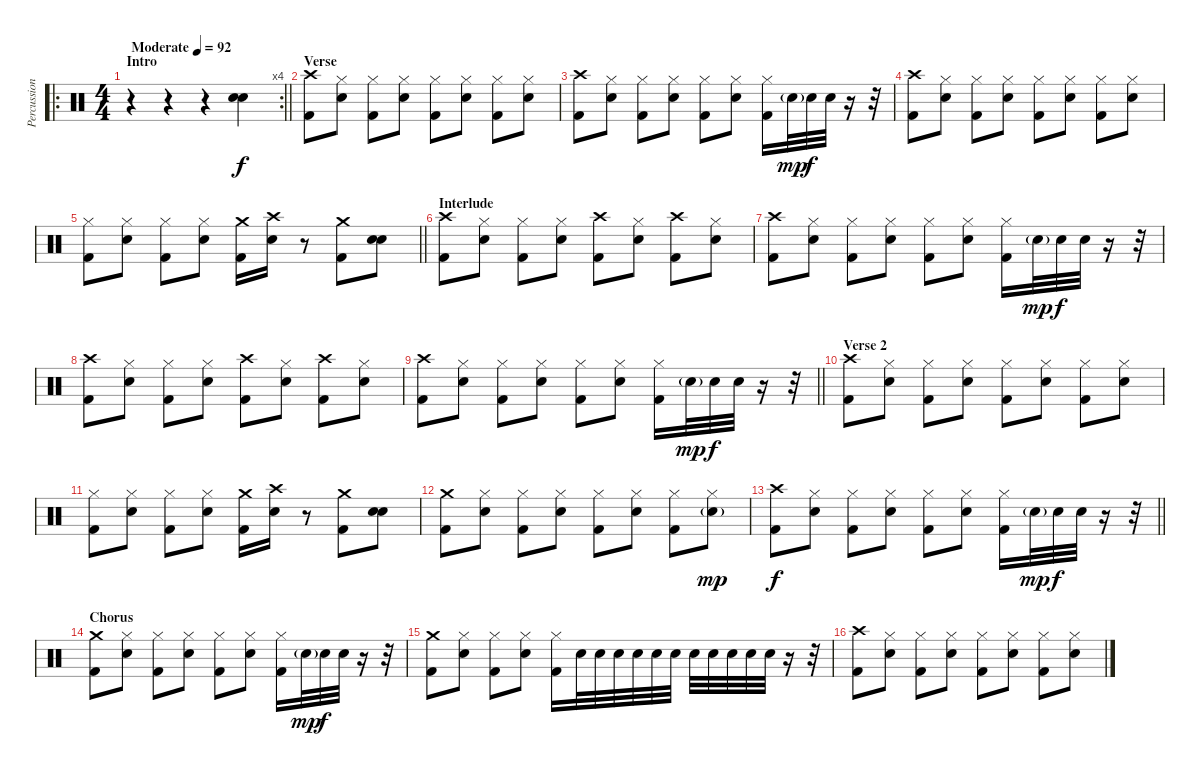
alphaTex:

\track ("Percussion" "Percussion") {instrument percussion}
\staff {score}
\articulation defaults
\ro
\rc 4
\ts (4 4)
\section ("" "Intro")
\tempo (92 "Moderate")
\clef neutral
\barLineRight lightlight
\ks c
r.4{dy f} r.4 r.4 ("Snare (hit) 2" "Snare (hit) 2").4{bd 240} |
\section ("" "Verse")
("Crash high (hit)" "Kick (hit) 2").8 ("Hi-Hat (closed)" "Snare (hit) 2").8 ("Hi-Hat (closed)" "Kick (hit) 2").8 ("Hi-Hat (closed)" "Snare (hit) 2").8 ("Hi-Hat (closed)" "Kick (hit) 2").8 ("Hi-Hat (closed)" "Snare (hit) 2").8 ("Hi-Hat (closed)" "Kick (hit) 2").8 ("Hi-Hat (closed)" "Snare (hit) 2").8 |
("Crash high (hit)" "Kick (hit) 2").8 ("Hi-Hat (closed)" "Snare (hit) 2").8 ("Hi-Hat (closed)" "Kick (hit) 2").8 ("Hi-Hat (closed)" "Snare (hit) 2").8 ("Hi-Hat (closed)" "Kick (hit) 2").8 ("Hi-Hat (closed)" "Snare (hit) 2").8 ("Hi-Hat (closed)" "Kick (hit) 2").16 "Snare (hit) 2"{g}.32{dy mp} "Snare (hit) 2".32{dy f} "Snare (hit) 2".32 r.16 r.32 |
("Crash high (hit)" "Kick (hit) 2").8 ("Hi-Hat (closed)" "Snare (hit) 2").8 ("Hi-Hat (closed)" "Kick (hit) 2").8 ("Hi-Hat (closed)" "Snare (hit) 2").8 ("Hi-Hat (closed)" "Kick (hit) 2").8 ("Hi-Hat (closed)" "Snare (hit) 2").8 ("Hi-Hat (closed)" "Kick (hit) 2").8 ("Hi-Hat (closed)" "Snare (hit) 2").8 |
\barLineRight lightlight
("Hi-Hat (closed)" "Kick (hit) 2").8 ("Hi-Hat (closed)" "Snare (hit) 2").8 ("Hi-Hat (closed)" "Kick (hit) 2").8 ("Hi-Hat (closed)" "Snare (hit) 2").8 ("Crash medium (hit)" "Kick (hit) 2").16 ("Crash high (hit)" "Snare (hit) 2").16 r.8 ("Crash medium (hit)" "Kick (hit) 2").8 ("Snare (hit) 2" "Snare (hit) 2").8{bd 240} |
\section ("" "Interlude")
("Crash high (hit)" "Kick (hit) 2").8 ("Hi-Hat (closed)" "Snare (hit) 2").8 ("Hi-Hat (closed)" "Kick (hit) 2").8 ("Hi-Hat (closed)" "Snare (hit) 2").8 ("Crash high (hit)" "Kick (hit) 2").8 ("Hi-Hat (closed)" "Snare (hit) 2").8 ("Crash high (hit)" "Kick (hit) 2").8 ("Hi-Hat (closed)" "Snare (hit) 2").8 |
("Crash high (hit)" "Kick (hit) 2").8 ("Hi-Hat (closed)" "Snare (hit) 2").8 ("Hi-Hat (closed)" "Kick (hit) 2").8 ("Hi-Hat (closed)" "Snare (hit) 2").8 ("Hi-Hat (closed)" "Kick (hit) 2").8 ("Hi-Hat (closed)" "Snare (hit) 2").8 ("Hi-Hat (closed)" "Kick (hit) 2").16 "Snare (hit) 2"{g}.32{dy mp} "Snare (hit) 2".32{dy f} "Snare (hit) 2".32 r.16 r.32 |
("Crash high (hit)" "Kick (hit) 2").8 ("Hi-Hat (closed)" "Snare (hit) 2").8 ("Hi-Hat (closed)" "Kick (hit) 2").8 ("Hi-Hat (closed)" "Snare (hit) 2").8 ("Crash high (hit)" "Kick (hit) 2").8 ("Hi-Hat (closed)" "Snare (hit) 2").8 ("Crash high (hit)" "Kick (hit) 2").8 ("Hi-Hat (closed)" "Snare (hit) 2").8 |
\barLineRight lightlight
("Crash high (hit)" "Kick (hit) 2").8 ("Hi-Hat (closed)" "Snare (hit) 2").8 ("Hi-Hat (closed)" "Kick (hit) 2").8 ("Hi-Hat (closed)" "Snare (hit) 2").8 ("Hi-Hat (closed)" "Kick (hit) 2").8 ("Hi-Hat (closed)" "Snare (hit) 2").8 ("Hi-Hat (closed)" "Kick (hit) 2").16 "Snare (hit) 2"{g}.32{dy mp} "Snare (hit) 2".32{dy f} "Snare (hit) 2".32 r.16 r.32 |
\section ("" "Verse 2")
("Crash high (hit)" "Kick (hit) 2").8 ("Hi-Hat (closed)" "Snare (hit) 2").8 ("Hi-Hat (closed)" "Kick (hit) 2").8 ("Hi-Hat (closed)" "Snare (hit) 2").8 ("Hi-Hat (closed)" "Kick (hit) 2").8 ("Hi-Hat (closed)" "Snare (hit) 2").8 ("Hi-Hat (closed)" "Kick (hit) 2").8 ("Hi-Hat (closed)" "Snare (hit) 2").8 |
("Hi-Hat (closed)" "Kick (hit) 2").8 ("Hi-Hat (closed)" "Snare (hit) 2").8 ("Hi-Hat (closed)" "Kick (hit) 2").8 ("Hi-Hat (closed)" "Snare (hit) 2").8 ("Crash medium (hit)" "Kick (hit) 2").16 ("Crash high (hit)" "Snare (hit) 2").16 r.8 ("Crash medium (hit)" "Kick (hit) 2").8 ("Snare (hit) 2" "Snare (hit) 2").8{bd 240} |
("Crash medium (hit)" "Kick (hit) 2").8 ("Hi-Hat (closed)" "Snare (hit) 2").8 ("Hi-Hat (closed)" "Kick (hit) 2").8 ("Hi-Hat (closed)" "Snare (hit) 2").8 ("Hi-Hat (closed)" "Kick (hit) 2").8 ("Hi-Hat (closed)" "Snare (hit) 2").8 ("Hi-Hat (closed)" "Kick (hit) 2").8 ("Hi-Hat (closed)" "Snare (hit) 2"{g}).8{dy mp} |
\barLineRight lightlight
("Crash high (hit)" "Kick (hit) 2").8{dy f} ("Hi-Hat (closed)" "Snare (hit) 2").8 ("Hi-Hat (closed)" "Kick (hit) 2").8 ("Hi-Hat (closed)" "Snare (hit) 2").8 ("Hi-Hat (closed)" "Kick (hit) 2").8 ("Hi-Hat (closed)" "Snare (hit) 2").8 ("Hi-Hat (closed)" "Kick (hit) 2").16 "Snare (hit) 2"{g}.32{dy mp} "Snare (hit) 2".32{dy f} "Snare (hit) 2".32 r.16 r.32 |
\section ("" "Chorus")
("Crash medium (hit)" "Kick (hit) 2").8 ("Hi-Hat (closed)" "Snare (hit) 2").8 ("Hi-Hat (closed)" "Kick (hit) 2").8 ("Hi-Hat (closed)" "Snare (hit) 2").8 ("Hi-Hat (closed)" "Kick (hit) 2").8 ("Hi-Hat (closed)" "Snare (hit) 2").8 ("Hi-Hat (closed)" "Kick (hit) 2").16 "Snare (hit) 2"{g}.32{dy mp} "Snare (hit) 2".32{dy f} "Snare (hit) 2".32 r.16 r.32 |
("Crash medium (hit)" "Kick (hit) 2").8 ("Hi-Hat (closed)" "Snare (hit) 2").8 ("Hi-Hat (closed)" "Kick (hit) 2").8 ("Hi-Hat (closed)" "Snare (hit) 2").8 ("Hi-Hat (closed)" "Kick (hit) 2").16 "Snare (hit) 2".32 "Snare (hit) 2".32 "Snare (hit) 2".32 "Snare (hit) 2".32 "Snare (hit) 2".32 "Snare (hit) 2".32 "Snare (hit) 2".32 "Snare (hit) 2".32 "Snare (hit) 2".32 "Snare (hit) 2".32 "Snare (hit) 2".32 r.16 r.32 |
("Crash high (hit)" "Kick (hit) 2").8 ("Hi-Hat (closed)" "Snare (hit) 2").8 ("Hi-Hat (closed)" "Kick (hit) 2").8 ("Hi-Hat (closed)" "Snare (hit) 2").8 ("Hi-Hat (closed)" "Kick (hit) 2").8 ("Hi-Hat (closed)" "Snare (hit) 2").8 ("Hi-Hat (closed)" "Kick (hit) 2").8 ("Hi-Hat (closed)" "Snare (hit) 2").8
